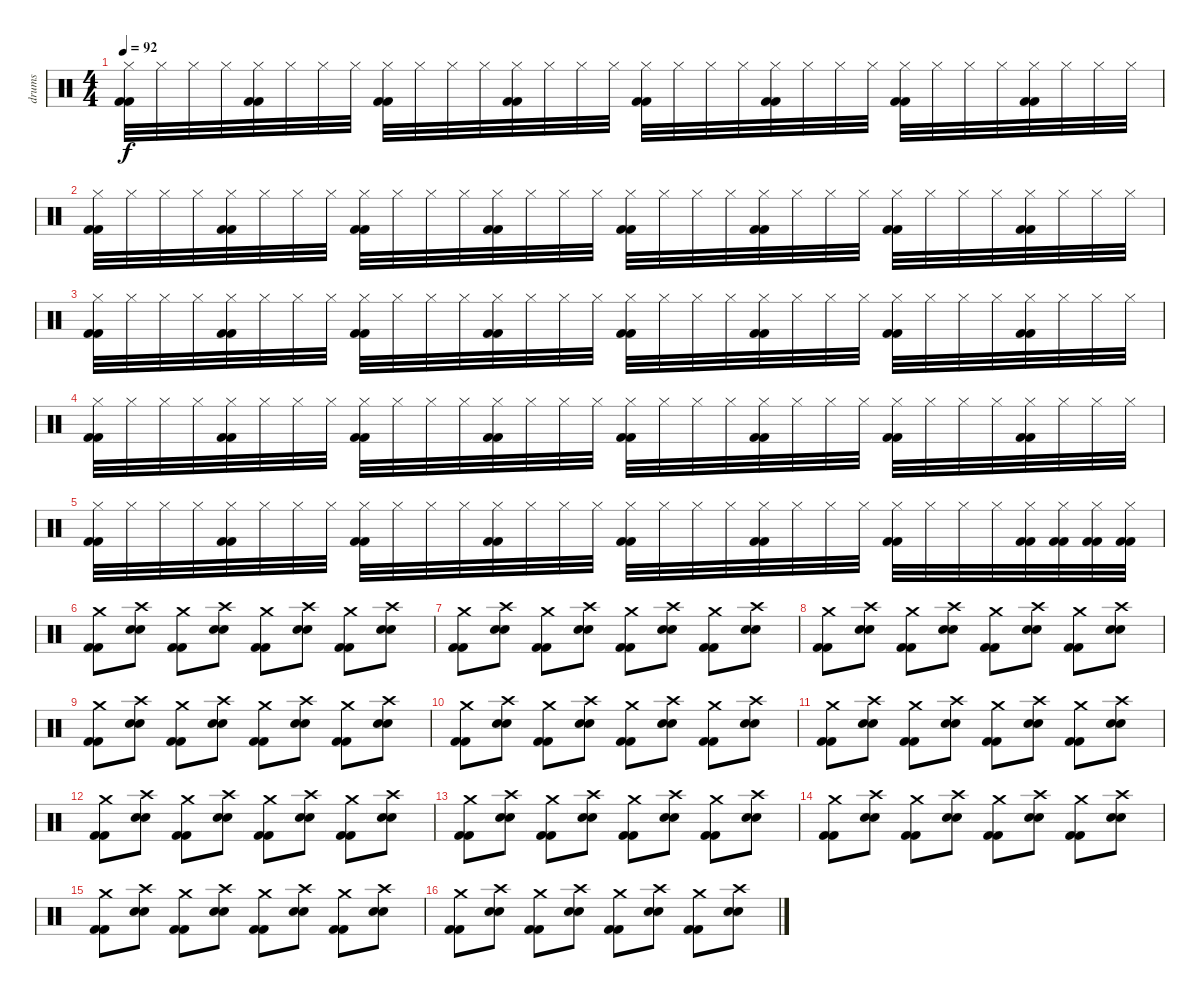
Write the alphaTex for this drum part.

\track ("drums" "drums") {instrument percussion}
\staff {score}
\articulation defaults
\ts (4 4)
\tempo 92
\clef neutral
\ks c
("Hi-Hat (closed)" "Kick (hit) 2" "Kick (hit) 2").32{dy f} "Hi-Hat (closed)".32 "Hi-Hat (closed)".32 "Hi-Hat (closed)".32 ("Hi-Hat (closed)" "Kick (hit) 2" "Kick (hit) 2").32 "Hi-Hat (closed)".32 "Hi-Hat (closed)".32 "Hi-Hat (closed)".32 ("Hi-Hat (closed)" "Kick (hit) 2" "Kick (hit) 2").32 "Hi-Hat (closed)".32 "Hi-Hat (closed)".32 "Hi-Hat (closed)".32 ("Hi-Hat (closed)" "Kick (hit) 2" "Kick (hit) 2").32 "Hi-Hat (closed)".32 "Hi-Hat (closed)".32 "Hi-Hat (closed)".32 ("Hi-Hat (closed)" "Kick (hit) 2" "Kick (hit) 2").32 "Hi-Hat (closed)".32 "Hi-Hat (closed)".32 "Hi-Hat (closed)".32 ("Hi-Hat (closed)" "Kick (hit) 2" "Kick (hit) 2").32 "Hi-Hat (closed)".32 "Hi-Hat (closed)".32 "Hi-Hat (closed)".32 ("Hi-Hat (closed)" "Kick (hit) 2" "Kick (hit) 2").32 "Hi-Hat (closed)".32 "Hi-Hat (closed)".32 "Hi-Hat (closed)".32 ("Hi-Hat (closed)" "Kick (hit) 2" "Kick (hit) 2").32 "Hi-Hat (closed)".32 "Hi-Hat (closed)".32 "Hi-Hat (closed)".32 |
("Hi-Hat (closed)" "Kick (hit) 2" "Kick (hit) 2").32 "Hi-Hat (closed)".32 "Hi-Hat (closed)".32 "Hi-Hat (closed)".32 ("Hi-Hat (closed)" "Kick (hit) 2" "Kick (hit) 2").32 "Hi-Hat (closed)".32 "Hi-Hat (closed)".32 "Hi-Hat (closed)".32 ("Hi-Hat (closed)" "Kick (hit) 2" "Kick (hit) 2").32 "Hi-Hat (closed)".32 "Hi-Hat (closed)".32 "Hi-Hat (closed)".32 ("Hi-Hat (closed)" "Kick (hit) 2" "Kick (hit) 2").32 "Hi-Hat (closed)".32 "Hi-Hat (closed)".32 "Hi-Hat (closed)".32 ("Hi-Hat (closed)" "Kick (hit) 2" "Kick (hit) 2").32 "Hi-Hat (closed)".32 "Hi-Hat (closed)".32 "Hi-Hat (closed)".32 ("Hi-Hat (closed)" "Kick (hit) 2" "Kick (hit) 2").32 "Hi-Hat (closed)".32 "Hi-Hat (closed)".32 "Hi-Hat (closed)".32 ("Hi-Hat (closed)" "Kick (hit) 2" "Kick (hit) 2").32 "Hi-Hat (closed)".32 "Hi-Hat (closed)".32 "Hi-Hat (closed)".32 ("Hi-Hat (closed)" "Kick (hit) 2" "Kick (hit) 2").32 "Hi-Hat (closed)".32 "Hi-Hat (closed)".32 "Hi-Hat (closed)".32 |
("Hi-Hat (closed)" "Kick (hit) 2" "Kick (hit) 2").32 "Hi-Hat (closed)".32 "Hi-Hat (closed)".32 "Hi-Hat (closed)".32 ("Hi-Hat (closed)" "Kick (hit) 2" "Kick (hit) 2").32 "Hi-Hat (closed)".32 "Hi-Hat (closed)".32 "Hi-Hat (closed)".32 ("Hi-Hat (closed)" "Kick (hit) 2" "Kick (hit) 2").32 "Hi-Hat (closed)".32 "Hi-Hat (closed)".32 "Hi-Hat (closed)".32 ("Hi-Hat (closed)" "Kick (hit) 2" "Kick (hit) 2").32 "Hi-Hat (closed)".32 "Hi-Hat (closed)".32 "Hi-Hat (closed)".32 ("Hi-Hat (closed)" "Kick (hit) 2" "Kick (hit) 2").32 "Hi-Hat (closed)".32 "Hi-Hat (closed)".32 "Hi-Hat (closed)".32 ("Hi-Hat (closed)" "Kick (hit) 2" "Kick (hit) 2").32 "Hi-Hat (closed)".32 "Hi-Hat (closed)".32 "Hi-Hat (closed)".32 ("Hi-Hat (closed)" "Kick (hit) 2" "Kick (hit) 2").32 "Hi-Hat (closed)".32 "Hi-Hat (closed)".32 "Hi-Hat (closed)".32 ("Hi-Hat (closed)" "Kick (hit) 2" "Kick (hit) 2").32 "Hi-Hat (closed)".32 "Hi-Hat (closed)".32 "Hi-Hat (closed)".32 |
("Hi-Hat (closed)" "Kick (hit) 2" "Kick (hit) 2").32 "Hi-Hat (closed)".32 "Hi-Hat (closed)".32 "Hi-Hat (closed)".32 ("Hi-Hat (closed)" "Kick (hit) 2" "Kick (hit) 2").32 "Hi-Hat (closed)".32 "Hi-Hat (closed)".32 "Hi-Hat (closed)".32 ("Hi-Hat (closed)" "Kick (hit) 2" "Kick (hit) 2").32 "Hi-Hat (closed)".32 "Hi-Hat (closed)".32 "Hi-Hat (closed)".32 ("Hi-Hat (closed)" "Kick (hit) 2" "Kick (hit) 2").32 "Hi-Hat (closed)".32 "Hi-Hat (closed)".32 "Hi-Hat (closed)".32 ("Hi-Hat (closed)" "Kick (hit) 2" "Kick (hit) 2").32 "Hi-Hat (closed)".32 "Hi-Hat (closed)".32 "Hi-Hat (closed)".32 ("Hi-Hat (closed)" "Kick (hit) 2" "Kick (hit) 2").32 "Hi-Hat (closed)".32 "Hi-Hat (closed)".32 "Hi-Hat (closed)".32 ("Hi-Hat (closed)" "Kick (hit) 2" "Kick (hit) 2").32 "Hi-Hat (closed)".32 "Hi-Hat (closed)".32 "Hi-Hat (closed)".32 ("Hi-Hat (closed)" "Kick (hit) 2" "Kick (hit) 2").32 "Hi-Hat (closed)".32 "Hi-Hat (closed)".32 "Hi-Hat (closed)".32 |
("Hi-Hat (closed)" "Kick (hit) 2" "Kick (hit) 2").32 "Hi-Hat (closed)".32 "Hi-Hat (closed)".32 "Hi-Hat (closed)".32 ("Hi-Hat (closed)" "Kick (hit) 2" "Kick (hit) 2").32 "Hi-Hat (closed)".32 "Hi-Hat (closed)".32 "Hi-Hat (closed)".32 ("Hi-Hat (closed)" "Kick (hit) 2" "Kick (hit) 2").32 "Hi-Hat (closed)".32 "Hi-Hat (closed)".32 "Hi-Hat (closed)".32 ("Hi-Hat (closed)" "Kick (hit) 2" "Kick (hit) 2").32 "Hi-Hat (closed)".32 "Hi-Hat (closed)".32 "Hi-Hat (closed)".32 ("Hi-Hat (closed)" "Kick (hit) 2" "Kick (hit) 2").32 "Hi-Hat (closed)".32 "Hi-Hat (closed)".32 "Hi-Hat (closed)".32 ("Hi-Hat (closed)" "Kick (hit) 2" "Kick (hit) 2").32 "Hi-Hat (closed)".32 "Hi-Hat (closed)".32 "Hi-Hat (closed)".32 ("Hi-Hat (closed)" "Kick (hit) 2" "Kick (hit) 2").32 "Hi-Hat (closed)".32 "Hi-Hat (closed)".32 "Hi-Hat (closed)".32 ("Hi-Hat (closed)" "Kick (hit) 2" "Kick (hit) 2").32 ("Hi-Hat (closed)" "Kick (hit) 2" "Kick (hit) 2").32 ("Hi-Hat (closed)" "Kick (hit) 2" "Kick (hit) 2").32 ("Hi-Hat (closed)" "Kick (hit) 2" "Kick (hit) 2").32 |
("Crash medium (hit)" "Kick (hit) 2" "Kick (hit) 2").8 ("Crash high (hit)" "Snare (hit) 2" "Snare (hit) 2").8 ("Crash medium (hit)" "Kick (hit) 2" "Kick (hit) 2").8 ("Crash high (hit)" "Snare (hit) 2" "Snare (hit) 2").8 ("Crash medium (hit)" "Kick (hit) 2" "Kick (hit) 2").8 ("Crash high (hit)" "Snare (hit) 2" "Snare (hit) 2").8 ("Crash medium (hit)" "Kick (hit) 2" "Kick (hit) 2").8 ("Crash high (hit)" "Snare (hit) 2" "Snare (hit) 2").8 |
("Crash medium (hit)" "Kick (hit) 2" "Kick (hit) 2").8 ("Crash high (hit)" "Snare (hit) 2" "Snare (hit) 2").8 ("Crash medium (hit)" "Kick (hit) 2" "Kick (hit) 2").8 ("Crash high (hit)" "Snare (hit) 2" "Snare (hit) 2").8 ("Crash medium (hit)" "Kick (hit) 2" "Kick (hit) 2").8 ("Crash high (hit)" "Snare (hit) 2" "Snare (hit) 2").8 ("Crash medium (hit)" "Kick (hit) 2" "Kick (hit) 2").8 ("Crash high (hit)" "Snare (hit) 2" "Snare (hit) 2").8 |
("Crash medium (hit)" "Kick (hit) 2" "Kick (hit) 2").8 ("Crash high (hit)" "Snare (hit) 2" "Snare (hit) 2").8 ("Crash medium (hit)" "Kick (hit) 2" "Kick (hit) 2").8 ("Crash high (hit)" "Snare (hit) 2" "Snare (hit) 2").8 ("Crash medium (hit)" "Kick (hit) 2" "Kick (hit) 2").8 ("Crash high (hit)" "Snare (hit) 2" "Snare (hit) 2").8 ("Crash medium (hit)" "Kick (hit) 2" "Kick (hit) 2").8 ("Crash high (hit)" "Snare (hit) 2" "Snare (hit) 2").8 |
("Crash medium (hit)" "Kick (hit) 2" "Kick (hit) 2").8 ("Crash high (hit)" "Snare (hit) 2" "Snare (hit) 2").8 ("Crash medium (hit)" "Kick (hit) 2" "Kick (hit) 2").8 ("Crash high (hit)" "Snare (hit) 2" "Snare (hit) 2").8 ("Crash medium (hit)" "Kick (hit) 2" "Kick (hit) 2").8 ("Crash high (hit)" "Snare (hit) 2" "Snare (hit) 2").8 ("Crash medium (hit)" "Kick (hit) 2" "Kick (hit) 2").8 ("Crash high (hit)" "Snare (hit) 2" "Snare (hit) 2").8 |
("Crash medium (hit)" "Kick (hit) 2" "Kick (hit) 2").8 ("Crash high (hit)" "Snare (hit) 2" "Snare (hit) 2").8 ("Crash medium (hit)" "Kick (hit) 2" "Kick (hit) 2").8 ("Crash high (hit)" "Snare (hit) 2" "Snare (hit) 2").8 ("Crash medium (hit)" "Kick (hit) 2" "Kick (hit) 2").8 ("Crash high (hit)" "Snare (hit) 2" "Snare (hit) 2").8 ("Crash medium (hit)" "Kick (hit) 2" "Kick (hit) 2").8 ("Crash high (hit)" "Snare (hit) 2" "Snare (hit) 2").8 |
("Crash medium (hit)" "Kick (hit) 2" "Kick (hit) 2").8 ("Crash high (hit)" "Snare (hit) 2" "Snare (hit) 2").8 ("Crash medium (hit)" "Kick (hit) 2" "Kick (hit) 2").8 ("Crash high (hit)" "Snare (hit) 2" "Snare (hit) 2").8 ("Crash medium (hit)" "Kick (hit) 2" "Kick (hit) 2").8 ("Crash high (hit)" "Snare (hit) 2" "Snare (hit) 2").8 ("Crash medium (hit)" "Kick (hit) 2" "Kick (hit) 2").8 ("Crash high (hit)" "Snare (hit) 2" "Snare (hit) 2").8 |
("Crash medium (hit)" "Kick (hit) 2" "Kick (hit) 2").8 ("Crash high (hit)" "Snare (hit) 2" "Snare (hit) 2").8 ("Crash medium (hit)" "Kick (hit) 2" "Kick (hit) 2").8 ("Crash high (hit)" "Snare (hit) 2" "Snare (hit) 2").8 ("Crash medium (hit)" "Kick (hit) 2" "Kick (hit) 2").8 ("Crash high (hit)" "Snare (hit) 2" "Snare (hit) 2").8 ("Crash medium (hit)" "Kick (hit) 2" "Kick (hit) 2").8 ("Crash high (hit)" "Snare (hit) 2" "Snare (hit) 2").8 |
("Crash medium (hit)" "Kick (hit) 2" "Kick (hit) 2").8 ("Crash high (hit)" "Snare (hit) 2" "Snare (hit) 2").8 ("Crash medium (hit)" "Kick (hit) 2" "Kick (hit) 2").8 ("Crash high (hit)" "Snare (hit) 2" "Snare (hit) 2").8 ("Crash medium (hit)" "Kick (hit) 2" "Kick (hit) 2").8 ("Crash high (hit)" "Snare (hit) 2" "Snare (hit) 2").8 ("Crash medium (hit)" "Kick (hit) 2" "Kick (hit) 2").8 ("Crash high (hit)" "Snare (hit) 2" "Snare (hit) 2").8 |
("Crash medium (hit)" "Kick (hit) 2" "Kick (hit) 2").8 ("Crash high (hit)" "Snare (hit) 2" "Snare (hit) 2").8 ("Crash medium (hit)" "Kick (hit) 2" "Kick (hit) 2").8 ("Crash high (hit)" "Snare (hit) 2" "Snare (hit) 2").8 ("Crash medium (hit)" "Kick (hit) 2" "Kick (hit) 2").8 ("Crash high (hit)" "Snare (hit) 2" "Snare (hit) 2").8 ("Crash medium (hit)" "Kick (hit) 2" "Kick (hit) 2").8 ("Crash high (hit)" "Snare (hit) 2" "Snare (hit) 2").8 |
("Crash medium (hit)" "Kick (hit) 2" "Kick (hit) 2").8 ("Crash high (hit)" "Snare (hit) 2" "Snare (hit) 2").8 ("Crash medium (hit)" "Kick (hit) 2" "Kick (hit) 2").8 ("Crash high (hit)" "Snare (hit) 2" "Snare (hit) 2").8 ("Crash medium (hit)" "Kick (hit) 2" "Kick (hit) 2").8 ("Crash high (hit)" "Snare (hit) 2" "Snare (hit) 2").8 ("Crash medium (hit)" "Kick (hit) 2" "Kick (hit) 2").8 ("Crash high (hit)" "Snare (hit) 2" "Snare (hit) 2").8 |
("Crash medium (hit)" "Kick (hit) 2" "Kick (hit) 2").8 ("Crash high (hit)" "Snare (hit) 2" "Snare (hit) 2").8 ("Crash medium (hit)" "Kick (hit) 2" "Kick (hit) 2").8 ("Crash high (hit)" "Snare (hit) 2" "Snare (hit) 2").8 ("Crash medium (hit)" "Kick (hit) 2" "Kick (hit) 2").8 ("Crash high (hit)" "Snare (hit) 2" "Snare (hit) 2").8 ("Crash medium (hit)" "Kick (hit) 2" "Kick (hit) 2").8 ("Crash high (hit)" "Snare (hit) 2" "Snare (hit) 2").8
